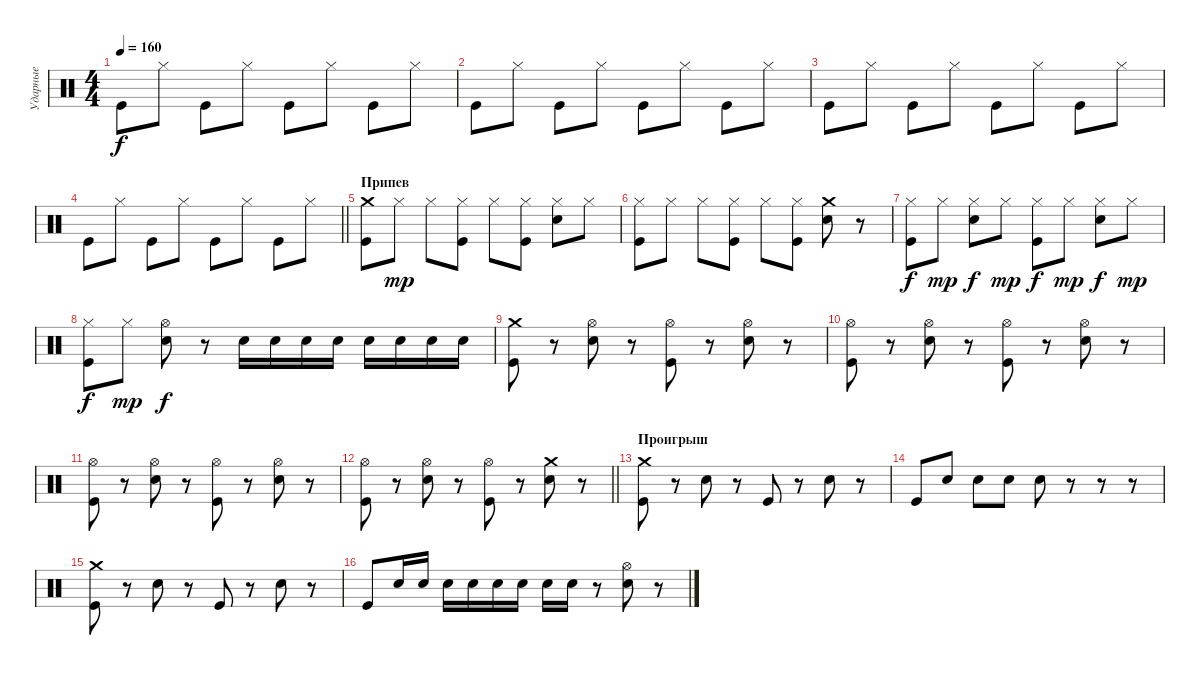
\track ("Ударные" "Ударные") {instrument percussion}
\staff {score}
\articulation defaults
\ts (4 4)
\tempo 160
\clef neutral
\ks c "Kick (hit)".8{dy f} "Hi-Hat (closed)".8 "Kick (hit)".8 "Hi-Hat (closed)".8 "Kick (hit)".8 "Hi-Hat (closed)".8 "Kick (hit)".8 "Hi-Hat (closed)".8
|
"Kick (hit)".8 "Hi-Hat (closed)".8 "Kick (hit)".8 "Hi-Hat (closed)".8 "Kick (hit)".8 "Hi-Hat (closed)".8 "Kick (hit)".8 "Hi-Hat (closed)".8 |
"Kick (hit)".8 "Hi-Hat (closed)".8 "Kick (hit)".8 "Hi-Hat (closed)".8 "Kick (hit)".8 "Hi-Hat (closed)".8 "Kick (hit)".8 "Hi-Hat (closed)".8 |
\barLineRight lightlight "Kick (hit)".8 "Hi-Hat (closed)".8 "Kick (hit)".8 "Hi-Hat (closed)".8 "Kick (hit)".8 "Hi-Hat (closed)".8 "Kick (hit)".8 "Hi-Hat (closed)".8
|
\section ("" "Припев")
("Crash medium (hit)" "Kick (hit)").8 "Hi-Hat (closed)".8{dy mp} "Hi-Hat (closed)".8 ("Hi-Hat (closed)" "Kick (hit)").8 "Hi-Hat (closed)".8 ("Hi-Hat (closed)" "Kick (hit)").8 ("Hi-Hat (closed)" "Electric Snare (hit)").8 "Hi-Hat (closed)".8 |
("Hi-Hat (closed)" "Kick (hit)").8 "Hi-Hat (closed)".8 "Hi-Hat (closed)".8 ("Hi-Hat (closed)" "Kick (hit)").8 "Hi-Hat (closed)".8 ("Hi-Hat (closed)" "Kick (hit)").8 ("Crash medium (hit)" "Electric Snare (hit)").8 r.8 |
("Hi-Hat (closed)" "Kick (hit)").8{dy f} "Hi-Hat (closed)".8{dy mp} ("Hi-Hat (closed)" "Electric Snare (hit)").8{dy f} "Hi-Hat (closed)".8{dy mp} ("Hi-Hat (closed)" "Kick (hit)").8{dy f} "Hi-Hat (closed)".8{dy mp} ("Hi-Hat (closed)" "Electric Snare (hit)").8{dy f} "Hi-Hat (closed)".8{dy mp} |
("Hi-Hat (closed)" "Kick (hit)").8{dy f} "Hi-Hat (closed)".8{dy mp} ("Hi-Hat (open)" "Electric Snare (hit)").8{dy f} r.8 "Electric Snare (hit)".16 "Electric Snare (hit)".16 "Electric Snare (hit)".16 "Electric Snare (hit)".16 "Electric Snare (hit)".16 "Electric Snare (hit)".16 "Electric Snare (hit)".16 "Electric Snare (hit)".16 |
("Crash medium (hit)" "Kick (hit)").8 r.8 ("Hi-Hat (open)" "Electric Snare (hit)").8 r.8 ("Hi-Hat (open)" "Kick (hit)").8 r.8 ("Hi-Hat (open)" "Electric Snare (hit)").8 r.8 |
("Hi-Hat (open)" "Kick (hit)").8 r.8 ("Hi-Hat (open)" "Electric Snare (hit)").8 r.8 ("Hi-Hat (open)" "Kick (hit)").8 r.8 ("Hi-Hat (open)" "Electric Snare (hit)").8 r.8 |
("Hi-Hat (open)" "Kick (hit)").8 r.8 ("Hi-Hat (open)" "Electric Snare (hit)").8 r.8 ("Hi-Hat (open)" "Kick (hit)").8 r.8 ("Hi-Hat (open)" "Electric Snare (hit)").8 r.8 |
\barLineRight lightlight
("Hi-Hat (open)" "Kick (hit)").8 r.8 ("Hi-Hat (open)" "Electric Snare (hit)").8 r.8 ("Hi-Hat (open)" "Kick (hit)").8 r.8 ("Crash medium (hit)" "Electric Snare (hit)").8 r.8 |
\section ("" "Проигрыш")
("Crash medium (hit)" "Kick (hit)").8 r.8 "Electric Snare (hit)".8 r.8 "Kick (hit)".8 r.8 "Electric Snare (hit)".8 r.8 |
"Kick (hit)".8 "Electric Snare (hit)".8 "Electric Snare (hit)".8 "Electric Snare (hit)".8 "Electric Snare (hit)".8 r.8 r.8 r.8 |
("Crash medium (hit)" "Kick (hit)").8 r.8 "Electric Snare (hit)".8 r.8 "Kick (hit)".8 r.8 "Electric Snare (hit)".8 r.8 |
"Kick (hit)".8 "Electric Snare (hit)".16 "Electric Snare (hit)".16 "Electric Snare (hit)".16 "Electric Snare (hit)".16 "Electric Snare (hit)".16 "Electric Snare (hit)".16 "Electric Snare (hit)".16 "Electric Snare (hit)".16 r.8 ("Hi-Hat (open)" "Electric Snare (hit)").8 r.8
